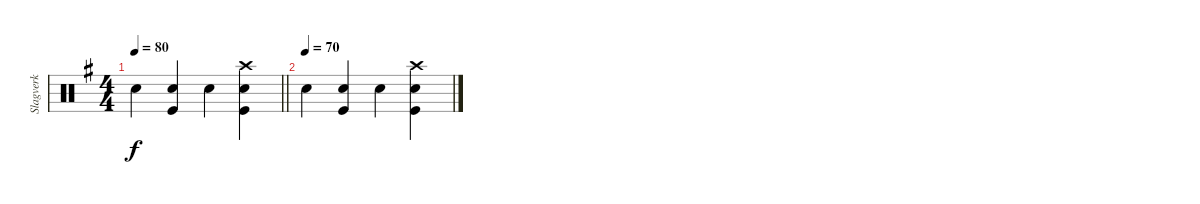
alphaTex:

\track ("Slagverk" "Slagverk") {instrument percussion}
\staff {score}
\articulation defaults
\ts (4 4)
\tempo 80
\clef neutral
\barLineRight lightlight
\ks g "Snare (hit) 2".4{dy f}
("Snare (hit) 2" "Kick (hit)").4 "Snare (hit) 2".4 ("Snare (hit) 2" "Crash high (hit)" "Kick (hit)").4 |
\tempo (70)
"Snare (hit) 2".4 ("Snare (hit) 2" "Kick (hit)").4 "Snare (hit) 2".4 ("Snare (hit) 2" "Crash high (hit)" "Kick (hit)").4
